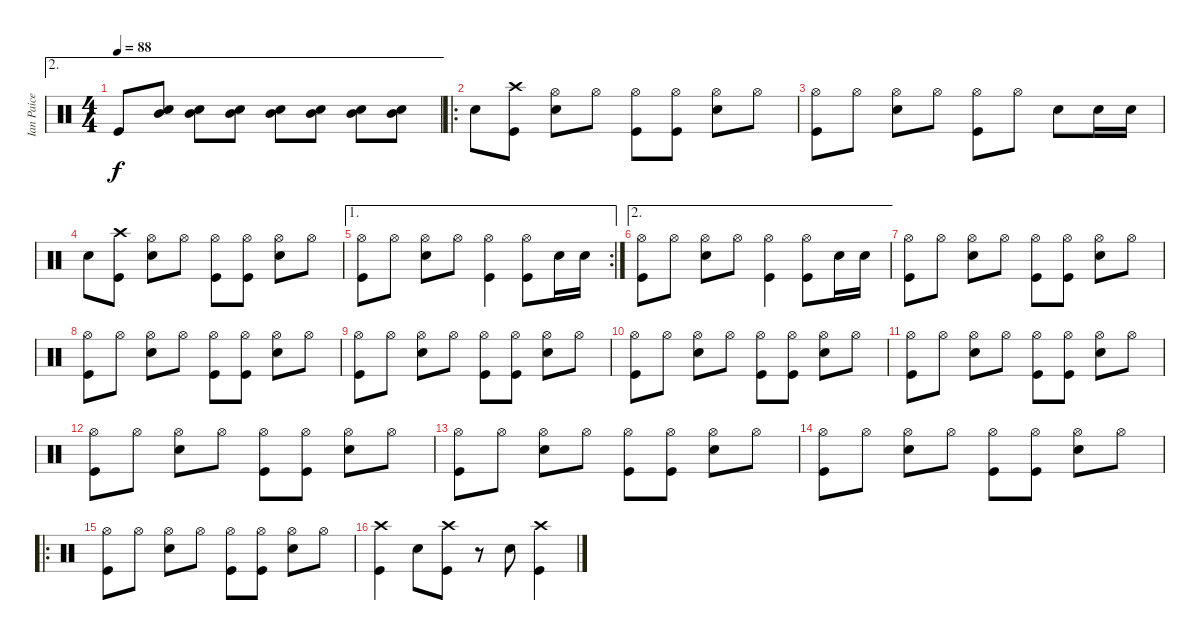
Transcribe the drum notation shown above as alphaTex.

\track ("Ian Paice" "Ian Paice") {instrument percussion}
\staff {score}
\articulation defaults
\ae 2
\ts (4 4)
\tempo 88
\clef neutral
\ks c "Kick (hit)".8{dy f}
("Snare (hit) 2" "Mid Tom (hit)").8 ("Snare (hit) 2" "Mid Tom (hit)").8 ("Snare (hit) 2" "Mid Tom (hit)").8 ("Snare (hit) 2" "Mid Tom (hit)").8 ("Snare (hit) 2" "Mid Tom (hit)").8 ("Snare (hit) 2" "Mid Tom (hit)").8 ("Snare (hit) 2" "Mid Tom (hit)").8 |
\ro "Snare (hit) 2".8
("Crash high (hit)" "Kick (hit)").8 ("Hi-Hat (open)" "Snare (hit) 2").8 "Hi-Hat (open)".8 ("Hi-Hat (open)" "Kick (hit)").8 ("Hi-Hat (open)" "Kick (hit)").8 ("Hi-Hat (open)" "Snare (hit) 2").8 "Hi-Hat (open)".8 |
("Hi-Hat (open)" "Kick (hit)").8 "Hi-Hat (open)".8 ("Hi-Hat (open)" "Snare (hit) 2").8 "Hi-Hat (open)".8 ("Hi-Hat (open)" "Kick (hit)").8 "Hi-Hat (open)".8 "Snare (hit) 2".8 "Snare (hit) 2".16 "Snare (hit) 2".16 |
"Snare (hit) 2".8 ("Crash high (hit)" "Kick (hit)").8 ("Hi-Hat (open)" "Snare (hit) 2").8 "Hi-Hat (open)".8 ("Hi-Hat (open)" "Kick (hit)").8 ("Hi-Hat (open)" "Kick (hit)").8 ("Hi-Hat (open)" "Snare (hit) 2").8 "Hi-Hat (open)".8 |
\ae 1
\rc 2
("Hi-Hat (open)" "Kick (hit)").8 "Hi-Hat (open)".8 ("Hi-Hat (open)" "Snare (hit) 2").8 "Hi-Hat (open)".8 ("Hi-Hat (open)" "Kick (hit)").4 ("Hi-Hat (open)" "Kick (hit)").8 "Snare (hit) 2".16 "Snare (hit) 2".16 |
\ae 2
("Hi-Hat (open)" "Kick (hit)").8 "Hi-Hat (open)".8 ("Hi-Hat (open)" "Snare (hit) 2").8 "Hi-Hat (open)".8 ("Hi-Hat (open)" "Kick (hit)").4 ("Hi-Hat (open)" "Kick (hit)").8 "Snare (hit) 2".16 "Snare (hit) 2".16 |
("Hi-Hat (open)" "Kick (hit)").8 "Hi-Hat (open)".8 ("Hi-Hat (open)" "Snare (hit) 2").8 "Hi-Hat (open)".8 ("Hi-Hat (open)" "Kick (hit)").8 ("Hi-Hat (open)" "Kick (hit)").8 ("Hi-Hat (open)" "Snare (hit) 2").8 "Hi-Hat (open)".8 |
("Hi-Hat (open)" "Kick (hit)").8 "Hi-Hat (open)".8 ("Hi-Hat (open)" "Snare (hit) 2").8 "Hi-Hat (open)".8 ("Hi-Hat (open)" "Kick (hit)").8 ("Hi-Hat (open)" "Kick (hit)").8 ("Hi-Hat (open)" "Snare (hit) 2").8 "Hi-Hat (open)".8 |
("Hi-Hat (open)" "Kick (hit)").8 "Hi-Hat (open)".8 ("Hi-Hat (open)" "Snare (hit) 2").8 "Hi-Hat (open)".8 ("Hi-Hat (open)" "Kick (hit)").8 ("Hi-Hat (open)" "Kick (hit)").8 ("Hi-Hat (open)" "Snare (hit) 2").8 "Hi-Hat (open)".8 |
("Hi-Hat (open)" "Kick (hit)").8 "Hi-Hat (open)".8 ("Hi-Hat (open)" "Snare (hit) 2").8 "Hi-Hat (open)".8 ("Hi-Hat (open)" "Kick (hit)").8 ("Hi-Hat (open)" "Kick (hit)").8 ("Hi-Hat (open)" "Snare (hit) 2").8 "Hi-Hat (open)".8 |
("Hi-Hat (open)" "Kick (hit)").8 "Hi-Hat (open)".8 ("Hi-Hat (open)" "Snare (hit) 2").8 "Hi-Hat (open)".8 ("Hi-Hat (open)" "Kick (hit)").8 ("Hi-Hat (open)" "Kick (hit)").8 ("Hi-Hat (open)" "Snare (hit) 2").8 "Hi-Hat (open)".8 |
("Hi-Hat (open)" "Kick (hit)").8 "Hi-Hat (open)".8 ("Hi-Hat (open)" "Snare (hit) 2").8 "Hi-Hat (open)".8 ("Hi-Hat (open)" "Kick (hit)").8 ("Hi-Hat (open)" "Kick (hit)").8 ("Hi-Hat (open)" "Snare (hit) 2").8 "Hi-Hat (open)".8 |
("Hi-Hat (open)" "Kick (hit)").8 "Hi-Hat (open)".8 ("Hi-Hat (open)" "Snare (hit) 2").8 "Hi-Hat (open)".8 ("Hi-Hat (open)" "Kick (hit)").8 ("Hi-Hat (open)" "Kick (hit)").8 ("Hi-Hat (open)" "Snare (hit) 2").8 "Hi-Hat (open)".8 |
("Hi-Hat (open)" "Kick (hit)").8 "Hi-Hat (open)".8 ("Hi-Hat (open)" "Snare (hit) 2").8 "Hi-Hat (open)".8 ("Hi-Hat (open)" "Kick (hit)").8 ("Hi-Hat (open)" "Kick (hit)").8 ("Hi-Hat (open)" "Snare (hit) 2").8 "Hi-Hat (open)".8 |
\ro
("Hi-Hat (open)" "Kick (hit)").8 "Hi-Hat (open)".8 ("Hi-Hat (open)" "Snare (hit) 2").8 "Hi-Hat (open)".8 ("Hi-Hat (open)" "Kick (hit)").8 ("Hi-Hat (open)" "Kick (hit)").8 ("Hi-Hat (open)" "Snare (hit) 2").8 "Hi-Hat (open)".8 |
("Crash high (hit)" "Kick (hit)").4 "Snare (hit) 2".8 ("Crash high (hit)" "Kick (hit)").8 r.8 "Snare (hit) 2".8 ("Crash high (hit)" "Kick (hit)").4
